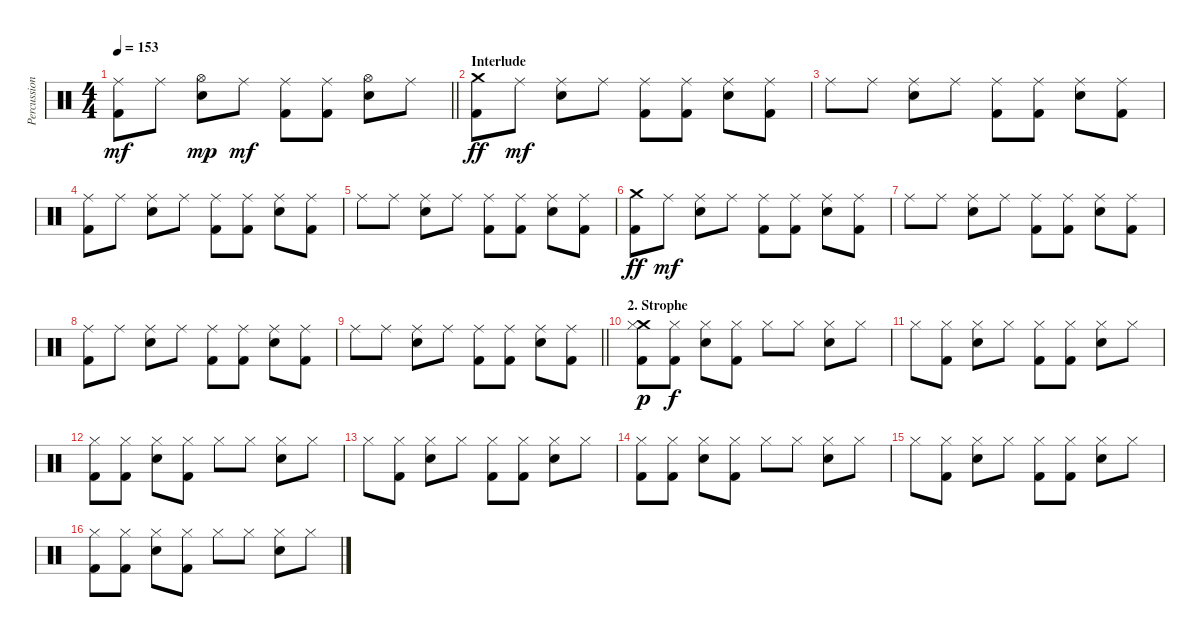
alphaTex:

\track ("Percussion" "Percussion") {instrument percussion}
\staff {score}
\articulation defaults
\ts (4 4)
\tempo 153
\clef neutral
\barLineRight lightlight
\ks c
("Ride (middle)" "Kick (hit) 2").8{dy mf} "Ride (middle)".8 ("Hi-Hat (open)" "Electric Snare (hit)").8{dy mp} "Ride (middle)".8{dy mf} ("Ride (middle)" "Kick (hit) 2").8 ("Ride (middle)" "Kick (hit) 2").8 ("Hi-Hat (open)" "Electric Snare (hit)").8 "Ride (middle)".8 |
\section ("" "Interlude")
("Crash medium (hit)" "Kick (hit) 2").8{dy ff} "Ride (middle)".8{dy mf} ("Ride (middle)" "Electric Snare (hit)").8 "Ride (middle)".8 ("Ride (middle)" "Kick (hit) 2").8 ("Ride (middle)" "Kick (hit) 2").8 ("Ride (middle)" "Electric Snare (hit)").8 ("Ride (middle)" "Kick (hit) 2").8 |
"Ride (middle)".8 "Ride (middle)".8 ("Ride (middle)" "Electric Snare (hit)").8 "Ride (middle)".8 ("Ride (middle)" "Kick (hit) 2").8 ("Ride (middle)" "Kick (hit) 2").8 ("Ride (middle)" "Electric Snare (hit)").8 ("Ride (middle)" "Kick (hit) 2").8 |
("Ride (middle)" "Kick (hit) 2").8 "Ride (middle)".8 ("Ride (middle)" "Electric Snare (hit)").8 "Ride (middle)".8 ("Ride (middle)" "Kick (hit) 2").8 ("Ride (middle)" "Kick (hit) 2").8 ("Ride (middle)" "Electric Snare (hit)").8 ("Ride (middle)" "Kick (hit) 2").8 |
"Ride (middle)".8 "Ride (middle)".8 ("Ride (middle)" "Electric Snare (hit)").8 "Ride (middle)".8 ("Ride (middle)" "Kick (hit) 2").8 ("Ride (middle)" "Kick (hit) 2").8 ("Ride (middle)" "Electric Snare (hit)").8 ("Ride (middle)" "Kick (hit) 2").8 |
("Crash medium (hit)" "Kick (hit) 2").8{dy ff} "Ride (middle)".8{dy mf} ("Ride (middle)" "Electric Snare (hit)").8 "Ride (middle)".8 ("Ride (middle)" "Kick (hit) 2").8 ("Ride (middle)" "Kick (hit) 2").8 ("Ride (middle)" "Electric Snare (hit)").8 ("Ride (middle)" "Kick (hit) 2").8 |
"Ride (middle)".8 "Ride (middle)".8 ("Ride (middle)" "Electric Snare (hit)").8 "Ride (middle)".8 ("Ride (middle)" "Kick (hit) 2").8 ("Ride (middle)" "Kick (hit) 2").8 ("Ride (middle)" "Electric Snare (hit)").8 ("Ride (middle)" "Kick (hit) 2").8 |
("Ride (middle)" "Kick (hit) 2").8 "Ride (middle)".8 ("Ride (middle)" "Electric Snare (hit)").8 "Ride (middle)".8 ("Ride (middle)" "Kick (hit) 2").8 ("Ride (middle)" "Kick (hit) 2").8 ("Ride (middle)" "Electric Snare (hit)").8 ("Ride (middle)" "Kick (hit) 2").8 |
\barLineRight lightlight "Ride (middle)".8 "Ride (middle)".8
("Ride (middle)" "Electric Snare (hit)").8 "Ride (middle)".8 ("Ride (middle)" "Kick (hit) 2").8 ("Ride (middle)" "Kick (hit) 2").8 ("Ride (middle)" "Electric Snare (hit)").8 ("Ride (middle)" "Kick (hit) 2").8 |
\section ("" "2. Strophe")
("Crash medium (hit)" "Hi-Hat (closed)" "Kick (hit) 2").8{dy p} ("Hi-Hat (closed)" "Kick (hit) 2").8{dy f} ("Hi-Hat (closed)" "Electric Snare (hit)").8 ("Hi-Hat (closed)" "Kick (hit) 2").8 "Hi-Hat (closed)".8 "Hi-Hat (closed)".8 ("Hi-Hat (closed)" "Electric Snare (hit)").8 "Hi-Hat (closed)".8 |
"Hi-Hat (closed)".8 ("Hi-Hat (closed)" "Kick (hit) 2").8 ("Hi-Hat (closed)" "Electric Snare (hit)").8 "Hi-Hat (closed)".8 ("Hi-Hat (closed)" "Kick (hit) 2").8 ("Hi-Hat (closed)" "Kick (hit) 2").8 ("Hi-Hat (closed)" "Electric Snare (hit)").8 "Hi-Hat (closed)".8 |
("Hi-Hat (closed)" "Kick (hit) 2").8 ("Hi-Hat (closed)" "Kick (hit) 2").8 ("Hi-Hat (closed)" "Electric Snare (hit)").8 ("Hi-Hat (closed)" "Kick (hit) 2").8 "Hi-Hat (closed)".8 "Hi-Hat (closed)".8 ("Hi-Hat (closed)" "Electric Snare (hit)").8 "Hi-Hat (closed)".8 |
"Hi-Hat (closed)".8 ("Hi-Hat (closed)" "Kick (hit) 2").8 ("Hi-Hat (closed)" "Electric Snare (hit)").8 "Hi-Hat (closed)".8 ("Hi-Hat (closed)" "Kick (hit) 2").8 ("Hi-Hat (closed)" "Kick (hit) 2").8 ("Hi-Hat (closed)" "Electric Snare (hit)").8 "Hi-Hat (closed)".8 |
("Hi-Hat (closed)" "Kick (hit) 2").8 ("Hi-Hat (closed)" "Kick (hit) 2").8 ("Hi-Hat (closed)" "Electric Snare (hit)").8 ("Hi-Hat (closed)" "Kick (hit) 2").8 "Hi-Hat (closed)".8 "Hi-Hat (closed)".8 ("Hi-Hat (closed)" "Electric Snare (hit)").8 "Hi-Hat (closed)".8 |
"Hi-Hat (closed)".8 ("Hi-Hat (closed)" "Kick (hit) 2").8 ("Hi-Hat (closed)" "Electric Snare (hit)").8 "Hi-Hat (closed)".8 ("Hi-Hat (closed)" "Kick (hit) 2").8 ("Hi-Hat (closed)" "Kick (hit) 2").8 ("Hi-Hat (closed)" "Electric Snare (hit)").8 "Hi-Hat (closed)".8 |
("Hi-Hat (closed)" "Kick (hit) 2").8 ("Hi-Hat (closed)" "Kick (hit) 2").8 ("Hi-Hat (closed)" "Electric Snare (hit)").8 ("Hi-Hat (closed)" "Kick (hit) 2").8 "Hi-Hat (closed)".8 "Hi-Hat (closed)".8 ("Hi-Hat (closed)" "Electric Snare (hit)").8 "Hi-Hat (closed)".8
